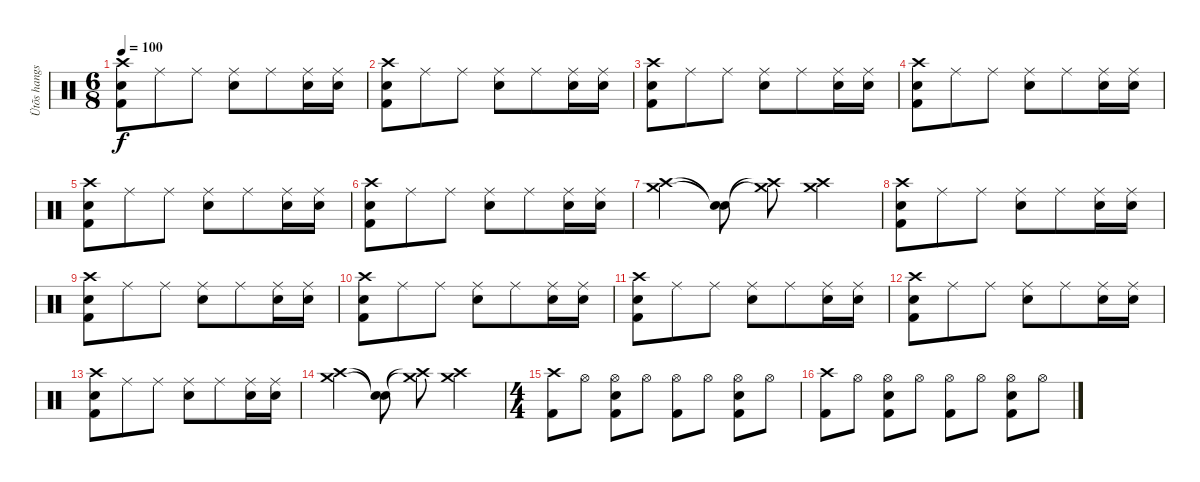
\track ("Ütõs hangszer" "Ütõs hangs") {instrument percussion}
\staff {score}
\articulation defaults
\ts (6 8)
\tempo 100
\clef neutral
\ks c
("Crash high (hit)" "Snare (hit) 2" "Kick (hit) 2").8{dy f} "Ride (middle)".8 "Ride (middle)".8 ("Ride (middle)" "Snare (hit) 2").8 "Ride (middle)".8 ("Ride (middle)" "Snare (hit) 2").16 ("Ride (middle)" "Snare (hit) 2").16 |
("Crash high (hit)" "Snare (hit) 2" "Kick (hit) 2").8 "Ride (middle)".8 "Ride (middle)".8 ("Ride (middle)" "Snare (hit) 2").8 "Ride (middle)".8 ("Ride (middle)" "Snare (hit) 2").16 ("Ride (middle)" "Snare (hit) 2").16 |
("Crash high (hit)" "Snare (hit) 2" "Kick (hit) 2").8 "Ride (middle)".8 "Ride (middle)".8 ("Ride (middle)" "Snare (hit) 2").8 "Ride (middle)".8 ("Ride (middle)" "Snare (hit) 2").16 ("Ride (middle)" "Snare (hit) 2").16 |
("Crash high (hit)" "Snare (hit) 2" "Kick (hit) 2").8 "Ride (middle)".8 "Ride (middle)".8 ("Ride (middle)" "Snare (hit) 2").8 "Ride (middle)".8 ("Ride (middle)" "Snare (hit) 2").16 ("Ride (middle)" "Snare (hit) 2").16 |
("Crash high (hit)" "Snare (hit) 2" "Kick (hit) 2").8 "Ride (middle)".8 "Ride (middle)".8 ("Ride (middle)" "Snare (hit) 2").8 "Ride (middle)".8 ("Ride (middle)" "Snare (hit) 2").16 ("Ride (middle)" "Snare (hit) 2").16 |
("Crash high (hit)" "Snare (hit) 2" "Kick (hit) 2").8 "Ride (middle)".8 "Ride (middle)".8 ("Ride (middle)" "Snare (hit) 2").8 "Ride (middle)".8 ("Ride (middle)" "Snare (hit) 2").16 ("Ride (middle)" "Snare (hit) 2").16 |
("Crash high (hit)" "Crash medium (hit)").4 ("Snare (hit)"{t} "Snare (hit)"{t}).8 ("Crash high (hit)"{t} "Crash medium (hit)"{t}).8 ("Crash high (hit)" "Crash medium (hit)").4 |
("Crash high (hit)" "Snare (hit) 2" "Kick (hit) 2").8 "Ride (middle)".8 "Ride (middle)".8 ("Ride (middle)" "Snare (hit) 2").8 "Ride (middle)".8 ("Ride (middle)" "Snare (hit) 2").16 ("Ride (middle)" "Snare (hit) 2").16 |
("Crash high (hit)" "Snare (hit) 2" "Kick (hit) 2").8 "Ride (middle)".8 "Ride (middle)".8 ("Ride (middle)" "Snare (hit) 2").8 "Ride (middle)".8 ("Ride (middle)" "Snare (hit) 2").16 ("Ride (middle)" "Snare (hit) 2").16 |
("Crash high (hit)" "Snare (hit) 2" "Kick (hit) 2").8 "Ride (middle)".8 "Ride (middle)".8 ("Ride (middle)" "Snare (hit) 2").8 "Ride (middle)".8 ("Ride (middle)" "Snare (hit) 2").16 ("Ride (middle)" "Snare (hit) 2").16 |
("Crash high (hit)" "Snare (hit) 2" "Kick (hit) 2").8 "Ride (middle)".8 "Ride (middle)".8 ("Ride (middle)" "Snare (hit) 2").8 "Ride (middle)".8 ("Ride (middle)" "Snare (hit) 2").16 ("Ride (middle)" "Snare (hit) 2").16 |
("Crash high (hit)" "Snare (hit) 2" "Kick (hit) 2").8 "Ride (middle)".8 "Ride (middle)".8 ("Ride (middle)" "Snare (hit) 2").8 "Ride (middle)".8 ("Ride (middle)" "Snare (hit) 2").16 ("Ride (middle)" "Snare (hit) 2").16 |
("Crash high (hit)" "Snare (hit) 2" "Kick (hit) 2").8 "Ride (middle)".8 "Ride (middle)".8 ("Ride (middle)" "Snare (hit) 2").8 "Ride (middle)".8 ("Ride (middle)" "Snare (hit) 2").16 ("Ride (middle)" "Snare (hit) 2").16 |
("Crash high (hit)" "Crash medium (hit)").4 ("Snare (hit)"{t} "Snare (hit)"{t}).8 ("Crash high (hit)"{t} "Crash medium (hit)"{t}).8 ("Crash high (hit)" "Crash medium (hit)").4 |
\ts (4 4)
("Crash high (hit)" "Kick (hit) 2").8 "Hi-Hat (open)".8 ("Hi-Hat (open)" "Snare (hit) 2" "Kick (hit) 2").8 "Hi-Hat (open)".8 ("Hi-Hat (open)" "Kick (hit) 2").8 "Hi-Hat (open)".8 ("Hi-Hat (open)" "Snare (hit) 2" "Kick (hit) 2").8 "Hi-Hat (open)".8 |
("Crash high (hit)" "Kick (hit) 2").8 "Hi-Hat (open)".8 ("Hi-Hat (open)" "Snare (hit) 2" "Kick (hit) 2").8 "Hi-Hat (open)".8 ("Hi-Hat (open)" "Kick (hit) 2").8 "Hi-Hat (open)".8 ("Hi-Hat (open)" "Snare (hit) 2" "Kick (hit) 2").8 "Hi-Hat (open)".8
